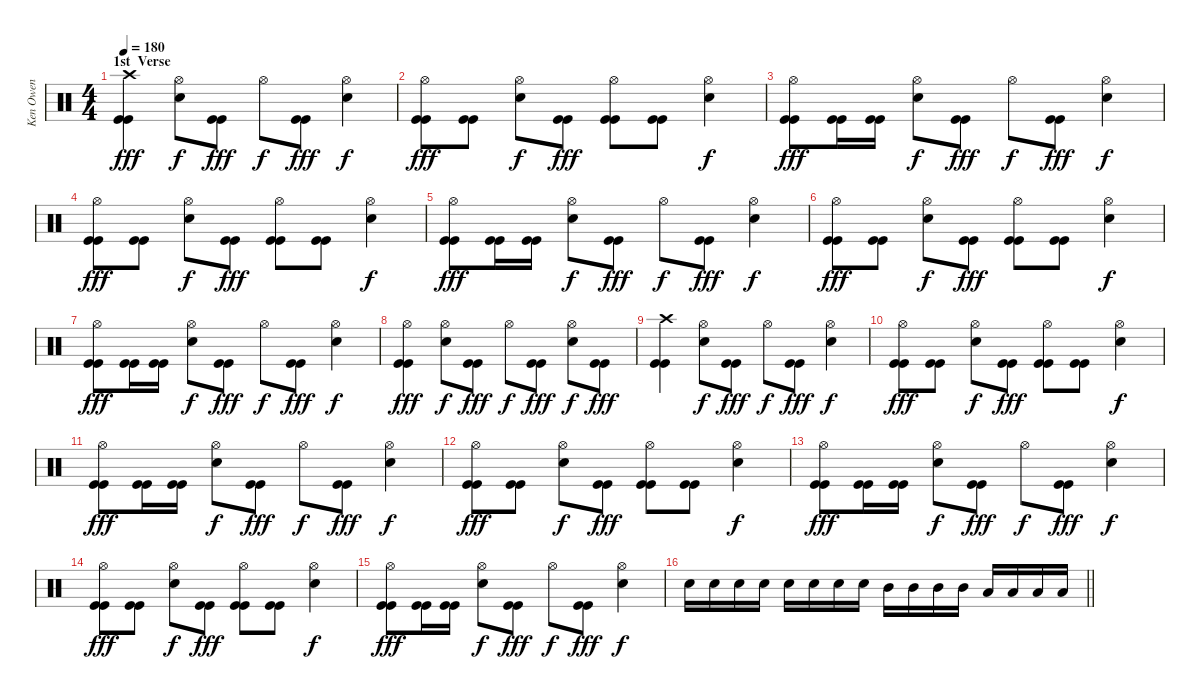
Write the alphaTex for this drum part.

\track ("Ken Owen" "Ken Owen") {instrument percussion}
\staff {score}
\articulation defaults
\ts (4 4)
\section ("" "1st  Verse")
\tempo 180
\clef neutral
\ks c
("Crash high (hit)" "Kick (hit)" "Kick (hit)").4{dy fff} ("Hi-Hat (open)" "Snare (hit) 2").8{dy f} ("Kick (hit)" "Kick (hit)").8{dy fff} "Hi-Hat (open)".8{dy f} ("Kick (hit)" "Kick (hit)").8{dy fff} ("Hi-Hat (open)" "Snare (hit) 2").4{dy f} |
("Hi-Hat (open)" "Kick (hit)" "Kick (hit)").8{dy fff} ("Kick (hit)" "Kick (hit)").8 ("Hi-Hat (open)" "Snare (hit) 2").8{dy f} ("Kick (hit)" "Kick (hit)").8{dy fff} ("Hi-Hat (open)" "Kick (hit)" "Kick (hit)").8 ("Kick (hit)" "Kick (hit)").8 ("Hi-Hat (open)" "Snare (hit) 2").4{dy f} |
("Hi-Hat (open)" "Kick (hit)" "Kick (hit)").8{dy fff} ("Kick (hit)" "Kick (hit)").16 ("Kick (hit)" "Kick (hit)").16 ("Hi-Hat (open)" "Snare (hit) 2").8{dy f} ("Kick (hit)" "Kick (hit)").8{dy fff} "Hi-Hat (open)".8{dy f} ("Kick (hit)" "Kick (hit)").8{dy fff} ("Hi-Hat (open)" "Snare (hit) 2").4{dy f} |
("Hi-Hat (open)" "Kick (hit)" "Kick (hit)").8{dy fff} ("Kick (hit)" "Kick (hit)").8 ("Hi-Hat (open)" "Snare (hit) 2").8{dy f} ("Kick (hit)" "Kick (hit)").8{dy fff} ("Hi-Hat (open)" "Kick (hit)" "Kick (hit)").8 ("Kick (hit)" "Kick (hit)").8 ("Hi-Hat (open)" "Snare (hit) 2").4{dy f} |
("Hi-Hat (open)" "Kick (hit)" "Kick (hit)").8{dy fff} ("Kick (hit)" "Kick (hit)").16 ("Kick (hit)" "Kick (hit)").16 ("Hi-Hat (open)" "Snare (hit) 2").8{dy f} ("Kick (hit)" "Kick (hit)").8{dy fff} "Hi-Hat (open)".8{dy f} ("Kick (hit)" "Kick (hit)").8{dy fff} ("Hi-Hat (open)" "Snare (hit) 2").4{dy f} |
("Hi-Hat (open)" "Kick (hit)" "Kick (hit)").8{dy fff} ("Kick (hit)" "Kick (hit)").8 ("Hi-Hat (open)" "Snare (hit) 2").8{dy f} ("Kick (hit)" "Kick (hit)").8{dy fff} ("Hi-Hat (open)" "Kick (hit)" "Kick (hit)").8 ("Kick (hit)" "Kick (hit)").8 ("Hi-Hat (open)" "Snare (hit) 2").4{dy f} |
("Hi-Hat (open)" "Kick (hit)" "Kick (hit)").8{dy fff} ("Kick (hit)" "Kick (hit)").16 ("Kick (hit)" "Kick (hit)").16 ("Hi-Hat (open)" "Snare (hit) 2").8{dy f} ("Kick (hit)" "Kick (hit)").8{dy fff} "Hi-Hat (open)".8{dy f} ("Kick (hit)" "Kick (hit)").8{dy fff} ("Hi-Hat (open)" "Snare (hit) 2").4{dy f} |
("Hi-Hat (open)" "Kick (hit)" "Kick (hit)").4{dy fff} ("Hi-Hat (open)" "Snare (hit) 2").8{dy f} ("Kick (hit)" "Kick (hit)").8{dy fff} "Hi-Hat (open)".8{dy f} ("Kick (hit)" "Kick (hit)").8{dy fff} ("Hi-Hat (open)" "Snare (hit) 2").8{dy f} ("Kick (hit)" "Kick (hit)").8{dy fff} |
("Crash high (hit)" "Kick (hit)" "Kick (hit)").4 ("Hi-Hat (open)" "Snare (hit) 2").8{dy f} ("Kick (hit)" "Kick (hit)").8{dy fff} "Hi-Hat (open)".8{dy f} ("Kick (hit)" "Kick (hit)").8{dy fff} ("Hi-Hat (open)" "Snare (hit) 2").4{dy f} |
("Hi-Hat (open)" "Kick (hit)" "Kick (hit)").8{dy fff} ("Kick (hit)" "Kick (hit)").8 ("Hi-Hat (open)" "Snare (hit) 2").8{dy f} ("Kick (hit)" "Kick (hit)").8{dy fff} ("Hi-Hat (open)" "Kick (hit)" "Kick (hit)").8 ("Kick (hit)" "Kick (hit)").8 ("Hi-Hat (open)" "Snare (hit) 2").4{dy f} |
("Hi-Hat (open)" "Kick (hit)" "Kick (hit)").8{dy fff} ("Kick (hit)" "Kick (hit)").16 ("Kick (hit)" "Kick (hit)").16 ("Hi-Hat (open)" "Snare (hit) 2").8{dy f} ("Kick (hit)" "Kick (hit)").8{dy fff} "Hi-Hat (open)".8{dy f} ("Kick (hit)" "Kick (hit)").8{dy fff} ("Hi-Hat (open)" "Snare (hit) 2").4{dy f} |
("Hi-Hat (open)" "Kick (hit)" "Kick (hit)").8{dy fff} ("Kick (hit)" "Kick (hit)").8 ("Hi-Hat (open)" "Snare (hit) 2").8{dy f} ("Kick (hit)" "Kick (hit)").8{dy fff} ("Hi-Hat (open)" "Kick (hit)" "Kick (hit)").8 ("Kick (hit)" "Kick (hit)").8 ("Hi-Hat (open)" "Snare (hit) 2").4{dy f} |
("Hi-Hat (open)" "Kick (hit)" "Kick (hit)").8{dy fff} ("Kick (hit)" "Kick (hit)").16 ("Kick (hit)" "Kick (hit)").16 ("Hi-Hat (open)" "Snare (hit) 2").8{dy f} ("Kick (hit)" "Kick (hit)").8{dy fff} "Hi-Hat (open)".8{dy f} ("Kick (hit)" "Kick (hit)").8{dy fff} ("Hi-Hat (open)" "Snare (hit) 2").4{dy f} |
("Hi-Hat (open)" "Kick (hit)" "Kick (hit)").8{dy fff} ("Kick (hit)" "Kick (hit)").8 ("Hi-Hat (open)" "Snare (hit) 2").8{dy f} ("Kick (hit)" "Kick (hit)").8{dy fff} ("Hi-Hat (open)" "Kick (hit)" "Kick (hit)").8 ("Kick (hit)" "Kick (hit)").8 ("Hi-Hat (open)" "Snare (hit) 2").4{dy f} |
("Hi-Hat (open)" "Kick (hit)" "Kick (hit)").8{dy fff} ("Kick (hit)" "Kick (hit)").16 ("Kick (hit)" "Kick (hit)").16 ("Hi-Hat (open)" "Snare (hit) 2").8{dy f} ("Kick (hit)" "Kick (hit)").8{dy fff} "Hi-Hat (open)".8{dy f} ("Kick (hit)" "Kick (hit)").8{dy fff} ("Hi-Hat (open)" "Snare (hit) 2").4{dy f} |
\barLineRight lightlight "Snare (hit) 2".16 "Snare (hit) 2".16 "Snare (hit) 2".16 "Snare (hit) 2".16 "Snare (hit) 2".16 "Snare (hit) 2".16 "Snare (hit) 2".16 "Snare (hit) 2".16 "Mid Tom (hit)".16 "Mid Tom (hit)".16 "Mid Tom (hit)".16 "Mid Tom (hit)".16 "Low Tom (hit)".16 "Low Tom (hit)".16 "Low Tom (hit)".16 "Low Tom (hit)".16
